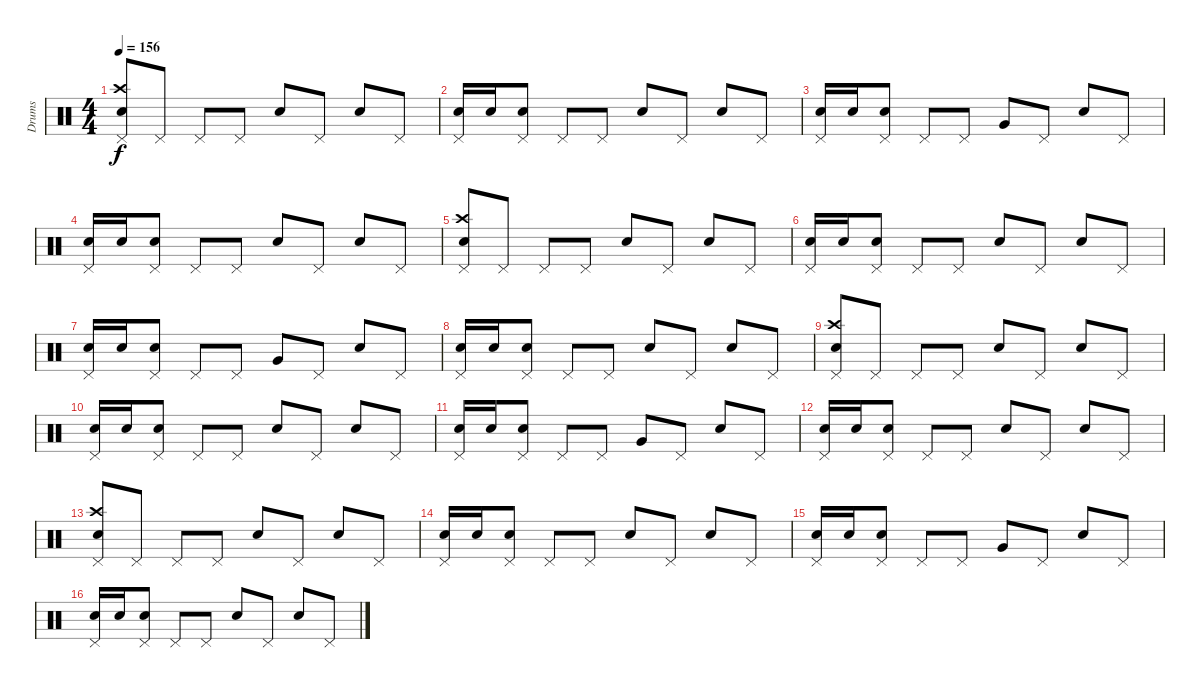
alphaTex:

\track ("Drums" "Drums") {instrument percussion}
\staff {score}
\articulation defaults
\ts (4 4)
\tempo 156
\clef neutral
\ks c
("Electric Snare (hit)" "Crash high (hit)" "Pedal Hi-Hat (hit)").8{dy f volume 13} "Pedal Hi-Hat (hit)".8 "Pedal Hi-Hat (hit)".8 "Pedal Hi-Hat (hit)".8 "Electric Snare (hit)".8 "Pedal Hi-Hat (hit)".8 "Electric Snare (hit)".8 "Pedal Hi-Hat (hit)".8 |
("Electric Snare (hit)" "Pedal Hi-Hat (hit)").16 "Electric Snare (hit)".16 ("Electric Snare (hit)" "Pedal Hi-Hat (hit)").8 "Pedal Hi-Hat (hit)".8 "Pedal Hi-Hat (hit)".8 "Electric Snare (hit)".8 "Pedal Hi-Hat (hit)".8 "Electric Snare (hit)".8 "Pedal Hi-Hat (hit)".8 |
("Electric Snare (hit)" "Pedal Hi-Hat (hit)").16 "Electric Snare (hit)".16 ("Electric Snare (hit)" "Pedal Hi-Hat (hit)").8 "Pedal Hi-Hat (hit)".8 "Pedal Hi-Hat (hit)".8 "Very Low Tom (hit)".8 "Pedal Hi-Hat (hit)".8 "Electric Snare (hit)".8 "Pedal Hi-Hat (hit)".8 |
("Electric Snare (hit)" "Pedal Hi-Hat (hit)").16 "Electric Snare (hit)".16 ("Electric Snare (hit)" "Pedal Hi-Hat (hit)").8 "Pedal Hi-Hat (hit)".8 "Pedal Hi-Hat (hit)".8 "Electric Snare (hit)".8 "Pedal Hi-Hat (hit)".8 "Electric Snare (hit)".8 "Pedal Hi-Hat (hit)".8 |
("Electric Snare (hit)" "Crash high (hit)" "Pedal Hi-Hat (hit)").8{volume 13} "Pedal Hi-Hat (hit)".8 "Pedal Hi-Hat (hit)".8 "Pedal Hi-Hat (hit)".8 "Electric Snare (hit)".8 "Pedal Hi-Hat (hit)".8 "Electric Snare (hit)".8 "Pedal Hi-Hat (hit)".8 |
("Electric Snare (hit)" "Pedal Hi-Hat (hit)").16 "Electric Snare (hit)".16 ("Electric Snare (hit)" "Pedal Hi-Hat (hit)").8 "Pedal Hi-Hat (hit)".8 "Pedal Hi-Hat (hit)".8 "Electric Snare (hit)".8 "Pedal Hi-Hat (hit)".8 "Electric Snare (hit)".8 "Pedal Hi-Hat (hit)".8 |
("Electric Snare (hit)" "Pedal Hi-Hat (hit)").16 "Electric Snare (hit)".16 ("Electric Snare (hit)" "Pedal Hi-Hat (hit)").8 "Pedal Hi-Hat (hit)".8 "Pedal Hi-Hat (hit)".8 "Very Low Tom (hit)".8 "Pedal Hi-Hat (hit)".8 "Electric Snare (hit)".8 "Pedal Hi-Hat (hit)".8 |
("Electric Snare (hit)" "Pedal Hi-Hat (hit)").16 "Electric Snare (hit)".16 ("Electric Snare (hit)" "Pedal Hi-Hat (hit)").8 "Pedal Hi-Hat (hit)".8 "Pedal Hi-Hat (hit)".8 "Electric Snare (hit)".8 "Pedal Hi-Hat (hit)".8 "Electric Snare (hit)".8 "Pedal Hi-Hat (hit)".8 |
("Electric Snare (hit)" "Crash high (hit)" "Pedal Hi-Hat (hit)").8{volume 13} "Pedal Hi-Hat (hit)".8 "Pedal Hi-Hat (hit)".8 "Pedal Hi-Hat (hit)".8 "Electric Snare (hit)".8 "Pedal Hi-Hat (hit)".8 "Electric Snare (hit)".8 "Pedal Hi-Hat (hit)".8 |
("Electric Snare (hit)" "Pedal Hi-Hat (hit)").16 "Electric Snare (hit)".16 ("Electric Snare (hit)" "Pedal Hi-Hat (hit)").8 "Pedal Hi-Hat (hit)".8 "Pedal Hi-Hat (hit)".8 "Electric Snare (hit)".8 "Pedal Hi-Hat (hit)".8 "Electric Snare (hit)".8 "Pedal Hi-Hat (hit)".8 |
("Electric Snare (hit)" "Pedal Hi-Hat (hit)").16 "Electric Snare (hit)".16 ("Electric Snare (hit)" "Pedal Hi-Hat (hit)").8 "Pedal Hi-Hat (hit)".8 "Pedal Hi-Hat (hit)".8 "Very Low Tom (hit)".8 "Pedal Hi-Hat (hit)".8 "Electric Snare (hit)".8 "Pedal Hi-Hat (hit)".8 |
("Electric Snare (hit)" "Pedal Hi-Hat (hit)").16 "Electric Snare (hit)".16 ("Electric Snare (hit)" "Pedal Hi-Hat (hit)").8 "Pedal Hi-Hat (hit)".8 "Pedal Hi-Hat (hit)".8 "Electric Snare (hit)".8 "Pedal Hi-Hat (hit)".8 "Electric Snare (hit)".8 "Pedal Hi-Hat (hit)".8 |
("Electric Snare (hit)" "Crash high (hit)" "Pedal Hi-Hat (hit)").8{volume 13} "Pedal Hi-Hat (hit)".8 "Pedal Hi-Hat (hit)".8 "Pedal Hi-Hat (hit)".8 "Electric Snare (hit)".8 "Pedal Hi-Hat (hit)".8 "Electric Snare (hit)".8 "Pedal Hi-Hat (hit)".8 |
("Electric Snare (hit)" "Pedal Hi-Hat (hit)").16 "Electric Snare (hit)".16 ("Electric Snare (hit)" "Pedal Hi-Hat (hit)").8 "Pedal Hi-Hat (hit)".8 "Pedal Hi-Hat (hit)".8 "Electric Snare (hit)".8 "Pedal Hi-Hat (hit)".8 "Electric Snare (hit)".8 "Pedal Hi-Hat (hit)".8 |
("Electric Snare (hit)" "Pedal Hi-Hat (hit)").16 "Electric Snare (hit)".16 ("Electric Snare (hit)" "Pedal Hi-Hat (hit)").8 "Pedal Hi-Hat (hit)".8 "Pedal Hi-Hat (hit)".8 "Very Low Tom (hit)".8 "Pedal Hi-Hat (hit)".8 "Electric Snare (hit)".8 "Pedal Hi-Hat (hit)".8 |
("Electric Snare (hit)" "Pedal Hi-Hat (hit)").16 "Electric Snare (hit)".16 ("Electric Snare (hit)" "Pedal Hi-Hat (hit)").8 "Pedal Hi-Hat (hit)".8 "Pedal Hi-Hat (hit)".8 "Electric Snare (hit)".8 "Pedal Hi-Hat (hit)".8 "Electric Snare (hit)".8 "Pedal Hi-Hat (hit)".8
